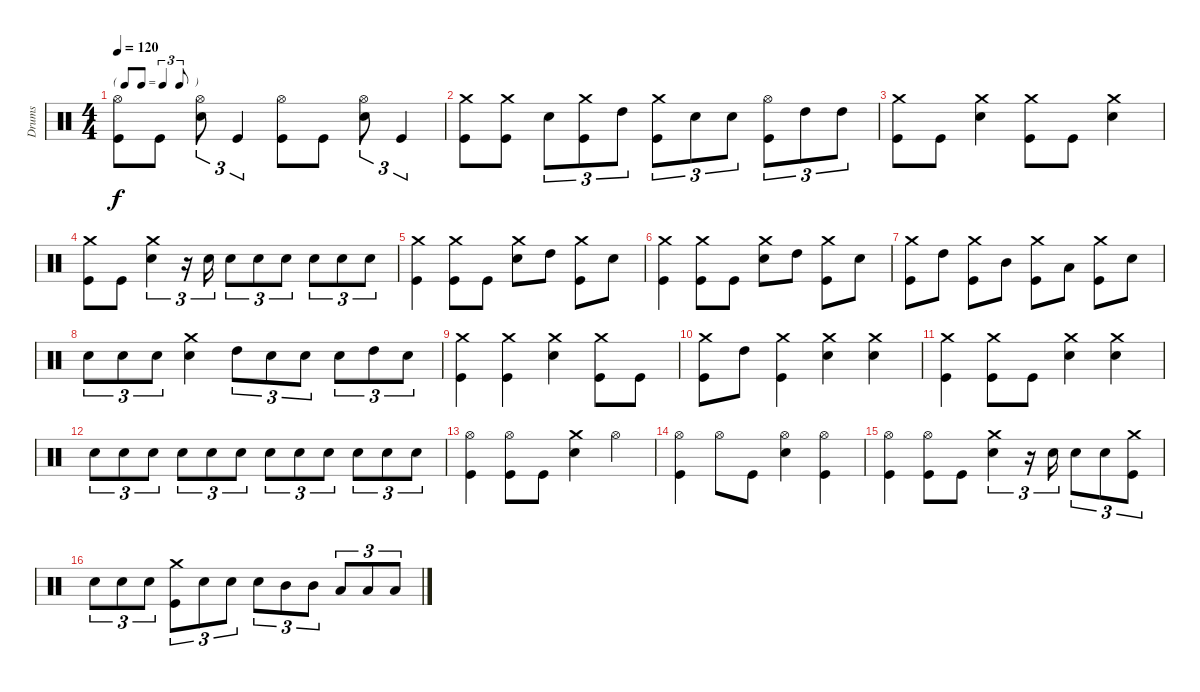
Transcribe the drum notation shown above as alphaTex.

\track ("Drums" "Drums") {instrument percussion}
\staff {score}
\articulation defaults
\ts (4 4)
\tf triplet8th
\tempo 120
\clef neutral
\ks c
("Kick (hit)" "Hi-Hat (open)").8{dy f} "Kick (hit)".8 ("Electric Snare (hit)" "Hi-Hat (open)").8{tu (3 2)} "Kick (hit)".4{tu (3 2)} ("Kick (hit)" "Hi-Hat (open)").8 "Kick (hit)".8 ("Electric Snare (hit)" "Hi-Hat (open)").8{tu (3 2)} "Kick (hit)".4{tu (3 2)} |
("Kick (hit)" "Crash medium (hit)").8 ("Kick (hit)" "Crash medium (hit)").8 "Electric Snare (hit)".8{tu (3 2)} ("Kick (hit)" "Crash medium (hit)").8{tu (3 2)} "High Tom (hit)".8{tu (3 2)} ("Kick (hit)" "Crash medium (hit)").8{tu (3 2)} "Electric Snare (hit)".8{tu (3 2)} "Electric Snare (hit)".8{tu (3 2)} ("Kick (hit)" "Hi-Hat (open)").8{tu (3 2)} "High Tom (hit)".8{tu (3 2)} "High Tom (hit)".8{tu (3 2)} |
("Kick (hit)" "Crash medium (hit)").8 "Kick (hit)".8 ("Electric Snare (hit)" "Crash medium (hit)").4 ("Kick (hit)" "Crash medium (hit)").8 "Kick (hit)".8 ("Electric Snare (hit)" "Crash medium (hit)").4 |
("Kick (hit)" "Crash medium (hit)").8 "Kick (hit)".8 ("Electric Snare (hit)" "Crash medium (hit)").4{tu (3 2)} r.16{tu (3 2)} "Electric Snare (hit)".16{tu (3 2)} "Electric Snare (hit)".8{tu (3 2)} "Electric Snare (hit)".8{tu (3 2)} "Electric Snare (hit)".8{tu (3 2)} "Electric Snare (hit)".8{tu (3 2)} "Electric Snare (hit)".8{tu (3 2)} "Electric Snare (hit)".8{tu (3 2)} |
("Kick (hit)" "Crash medium (hit)").4 ("Kick (hit)" "Crash medium (hit)").8 "Kick (hit)".8 ("Electric Snare (hit)" "Crash medium (hit)").8 "High Tom (hit)".8 ("Kick (hit)" "Crash medium (hit)").8 "Electric Snare (hit)".8 |
("Kick (hit)" "Crash medium (hit)").4 ("Kick (hit)" "Crash medium (hit)").8 "Kick (hit)".8 ("Electric Snare (hit)" "Crash medium (hit)").8 "High Tom (hit)".8 ("Kick (hit)" "Crash medium (hit)").8 "Electric Snare (hit)".8 |
("Kick (hit)" "Crash medium (hit)").8 "High Tom (hit)".8 ("Kick (hit)" "Crash medium (hit)").8 "Mid Tom (hit)".8 ("Kick (hit)" "Crash medium (hit)").8 "Low Tom (hit)".8 ("Kick (hit)" "Crash medium (hit)").8 "Electric Snare (hit)".8 |
"Electric Snare (hit)".8{tu (3 2)} "Electric Snare (hit)".8{tu (3 2)} "Electric Snare (hit)".8{tu (3 2)} ("Electric Snare (hit)" "Crash medium (hit)").4 "High Tom (hit)".8{tu (3 2)} "Electric Snare (hit)".8{tu (3 2)} "Electric Snare (hit)".8{tu (3 2)} "Electric Snare (hit)".8{tu (3 2)} "High Tom (hit)".8{tu (3 2)} "Electric Snare (hit)".8{tu (3 2)} |
("Kick (hit)" "Crash medium (hit)").4 ("Kick (hit)" "Crash medium (hit)").4 ("Electric Snare (hit)" "Crash medium (hit)").4 ("Kick (hit)" "Crash medium (hit)").8 "Kick (hit)".8 |
("Kick (hit)" "Crash medium (hit)").8 "High Tom (hit)".8 ("Kick (hit)" "Crash medium (hit)").4 ("Electric Snare (hit)" "Crash medium (hit)").4 ("Electric Snare (hit)" "Crash medium (hit)").4 |
("Kick (hit)" "Crash medium (hit)").4 ("Kick (hit)" "Crash medium (hit)").8 "Kick (hit)".8 ("Electric Snare (hit)" "Crash medium (hit)").4 ("Electric Snare (hit)" "Crash medium (hit)").4 |
"Electric Snare (hit)".8{tu (3 2)} "Electric Snare (hit)".8{tu (3 2)} "Electric Snare (hit)".8{tu (3 2)} "Electric Snare (hit)".8{tu (3 2)} "Electric Snare (hit)".8{tu (3 2)} "Electric Snare (hit)".8{tu (3 2)} "Electric Snare (hit)".8{tu (3 2)} "Electric Snare (hit)".8{tu (3 2)} "Electric Snare (hit)".8{tu (3 2)} "Electric Snare (hit)".8{tu (3 2)} "Electric Snare (hit)".8{tu (3 2)} "Electric Snare (hit)".8{tu (3 2)} |
("Kick (hit)" "Hi-Hat (open)").4 ("Kick (hit)" "Hi-Hat (open)").8 "Kick (hit)".8 ("Electric Snare (hit)" "Crash medium (hit)").4 "Hi-Hat (open)".4 |
("Kick (hit)" "Hi-Hat (open)").4 "Hi-Hat (open)".8 "Kick (hit)".8 ("Electric Snare (hit)" "Hi-Hat (open)").4 ("Kick (hit)" "Hi-Hat (open)").4 |
("Kick (hit)" "Hi-Hat (open)").4 ("Kick (hit)" "Hi-Hat (open)").8 "Kick (hit)".8 ("Electric Snare (hit)" "Crash medium (hit)").4{tu (3 2)} r.16{tu (3 2)} "Electric Snare (hit)".16{tu (3 2)} "Electric Snare (hit)".8{tu (3 2)} "Electric Snare (hit)".8{tu (3 2)} ("Kick (hit)" "Crash medium (hit)").8{tu (3 2)} |
"Electric Snare (hit)".8{tu (3 2)} "Electric Snare (hit)".8{tu (3 2)} "Electric Snare (hit)".8{tu (3 2)} ("Kick (hit)" "Crash medium (hit)").8{tu (3 2)} "Electric Snare (hit)".8{tu (3 2)} "Electric Snare (hit)".8{tu (3 2)} "Electric Snare (hit)".8{tu (3 2)} "Mid Tom (hit)".8{tu (3 2)} "Mid Tom (hit)".8{tu (3 2)} "Low Tom (hit)".8{tu (3 2)} "Low Tom (hit)".8{tu (3 2)} "Low Tom (hit)".8{tu (3 2)}
